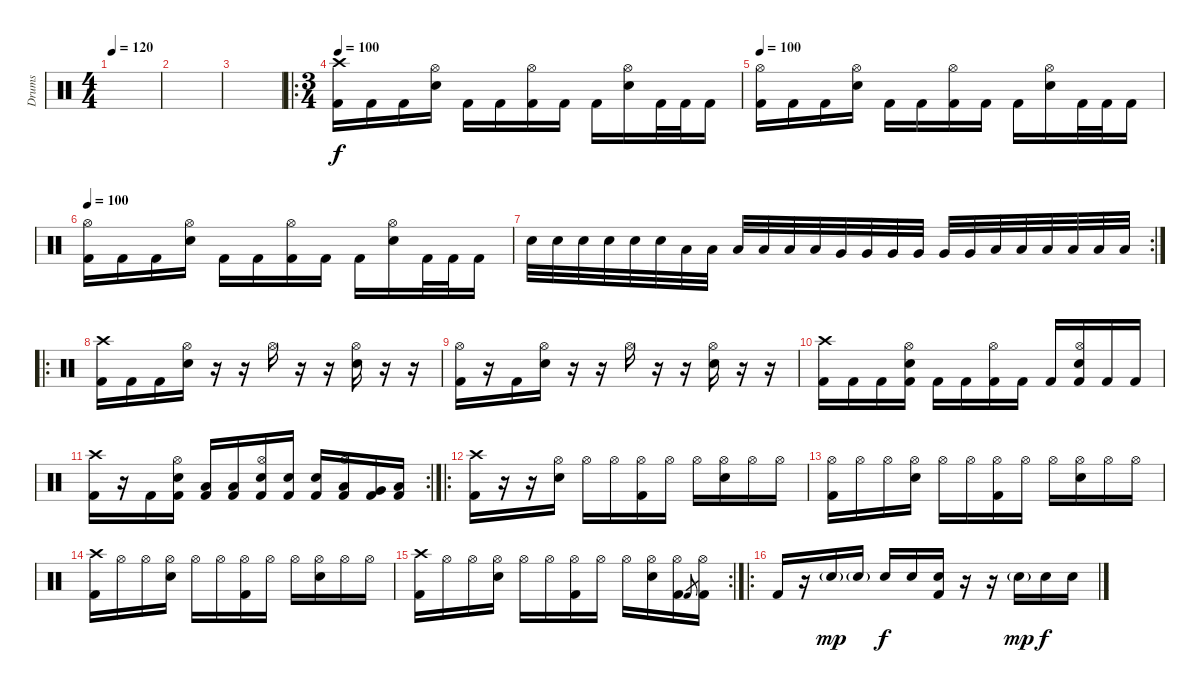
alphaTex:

\track ("Drums" "Drums") {instrument percussion}
\staff {score}
\articulation defaults
\ts (4 4)
\tempo 120
\clef neutral
\ks c
|
|
|
\ro
\ts (3 4)
\tempo 100
("Crash high (hit)" "Kick (hit) 2").16 "Kick (hit) 2".16 "Kick (hit) 2".16 ("Hi-Hat (open)" "Electric Snare (hit)").16 "Kick (hit) 2".16 "Kick (hit) 2".16 ("Hi-Hat (open)" "Kick (hit) 2").16 "Kick (hit) 2".16 "Kick (hit) 2".16 ("Hi-Hat (open)" "Electric Snare (hit)").16 "Kick (hit) 2".32 "Kick (hit) 2".32 "Kick (hit) 2".16 |
\tempo 100
("Hi-Hat (open)" "Kick (hit) 2").16 "Kick (hit) 2".16 "Kick (hit) 2".16 ("Hi-Hat (open)" "Electric Snare (hit)").16 "Kick (hit) 2".16 "Kick (hit) 2".16 ("Hi-Hat (open)" "Kick (hit) 2").16 "Kick (hit) 2".16 "Kick (hit) 2".16 ("Hi-Hat (open)" "Electric Snare (hit)").16 "Kick (hit) 2".32 "Kick (hit) 2".32 "Kick (hit) 2".16 |
\tempo 100
("Hi-Hat (open)" "Kick (hit) 2").16 "Kick (hit) 2".16 "Kick (hit) 2".16 ("Hi-Hat (open)" "Electric Snare (hit)").16 "Kick (hit) 2".16 "Kick (hit) 2".16 ("Hi-Hat (open)" "Kick (hit) 2").16 "Kick (hit) 2".16 "Kick (hit) 2".16 ("Hi-Hat (open)" "Electric Snare (hit)").16 "Kick (hit) 2".32 "Kick (hit) 2".32 "Kick (hit) 2".16 |
\rc 2 "Electric Snare (hit)".32 "Electric Snare (hit)".32 "Electric Snare (hit)".32 "Electric Snare (hit)".32 "Electric Snare (hit)".32 "Electric Snare (hit)".32 "Low Tom (hit)".32 "Low Tom (hit)".32 "Low Tom (hit)".32 "Low Tom (hit)".32 "Low Tom (hit)".32 "Low Tom (hit)".32 "Very Low Tom (hit)".32 "Very Low Tom (hit)".32 "Very Low Tom (hit)".32 "Very Low Tom (hit)".32 "Very Low Tom (hit)".32 "Very Low Tom (hit)".32 "Low Floor Tom (hit)".32 "Low Floor Tom (hit)".32 "Low Floor Tom (hit)".32 "Low Floor Tom (hit)".32 "Low Floor Tom (hit)".32 "Low Floor Tom (hit)".32
|
\ro
("Crash high (hit)" "Kick (hit) 2").16 "Kick (hit) 2".16 "Kick (hit) 2".16 ("Hi-Hat (open)" "Electric Snare (hit)").16 r.16 r.16 "Hi-Hat (open)".16 r.16 r.16 ("Hi-Hat (open)" "Electric Snare (hit)").16 r.16 r.16 |
("Hi-Hat (open)" "Kick (hit) 2").16 r.16 "Kick (hit) 2".16 ("Hi-Hat (open)" "Electric Snare (hit)").16 r.16 r.16 "Hi-Hat (open)".16 r.16 r.16 ("Hi-Hat (open)" "Electric Snare (hit)").16 r.16 r.16 |
("Crash high (hit)" "Kick (hit) 2").16 "Kick (hit) 2".16 "Kick (hit) 2".16 ("Hi-Hat (open)" "Electric Snare (hit)" "Kick (hit) 2").16 "Kick (hit) 2".16 "Kick (hit) 2".16 ("Hi-Hat (open)" "Kick (hit) 2").16 "Kick (hit) 2".16 "Kick (hit) 2".16 ("Hi-Hat (open)" "Electric Snare (hit)" "Kick (hit) 2").16 "Kick (hit) 2".16 "Kick (hit) 2".16 |
\rc 2
("Crash high (hit)" "Kick (hit) 2").16 r.16 "Kick (hit) 2".16 ("Hi-Hat (open)" "Electric Snare (hit)" "Kick (hit) 2").16 ("Low Floor Tom (hit)" "Kick (hit) 2").16 ("Low Floor Tom (hit)" "Kick (hit) 2").16 ("Hi-Hat (open)" "Electric Snare (hit)" "Kick (hit) 2").16 ("Electric Snare (hit)" "Kick (hit) 2").16 ("Electric Snare (hit)" "Kick (hit) 2").16 ("Hi-Hat (open)" "Low Tom (hit)" "Kick (hit) 2").16 ("Very Low Tom (hit)" "Kick (hit) 2").16 ("Low Floor Tom (hit)" "Kick (hit) 2").16 |
\ro
("Crash high (hit)" "Kick (hit) 2").16 r.16 r.16 ("Hi-Hat (open)" "Electric Snare (hit)").16 "Hi-Hat (open)".16 "Hi-Hat (open)".16 ("Hi-Hat (open)" "Kick (hit) 2").16 "Hi-Hat (open)".16 "Hi-Hat (open)".16 ("Hi-Hat (open)" "Electric Snare (hit)").16 "Hi-Hat (open)".16 "Hi-Hat (open)".16 |
("Hi-Hat (open)" "Kick (hit) 2").16 "Hi-Hat (open)".16 "Hi-Hat (open)".16 ("Hi-Hat (open)" "Electric Snare (hit)").16 "Hi-Hat (open)".16 "Hi-Hat (open)".16 ("Hi-Hat (open)" "Kick (hit) 2").16 "Hi-Hat (open)".16 "Hi-Hat (open)".16 ("Hi-Hat (open)" "Electric Snare (hit)").16 "Hi-Hat (open)".16 "Hi-Hat (open)".16 |
("Crash high (hit)" "Kick (hit) 2").16 "Hi-Hat (open)".16 "Hi-Hat (open)".16 ("Hi-Hat (open)" "Electric Snare (hit)").16 "Hi-Hat (open)".16 "Hi-Hat (open)".16 ("Hi-Hat (open)" "Kick (hit) 2").16 "Hi-Hat (open)".16 "Hi-Hat (open)".16 ("Hi-Hat (open)" "Electric Snare (hit)").16 "Hi-Hat (open)".16 "Hi-Hat (open)".16 |
\rc 2
("Crash high (hit)" "Kick (hit) 2").16 "Hi-Hat (open)".16 "Hi-Hat (open)".16 ("Hi-Hat (open)" "Electric Snare (hit)").16 "Hi-Hat (open)".16 "Hi-Hat (open)".16 ("Hi-Hat (open)" "Kick (hit) 2").16 "Hi-Hat (open)".16 "Hi-Hat (open)".16 ("Hi-Hat (open)" "Electric Snare (hit)").16 ("Hi-Hat (open)" "Kick (hit) 2").16 "Kick (hit) 2".8{gr} ("Hi-Hat (open)" "Kick (hit) 2").16 |
\ro "Kick (hit) 2".16
r.16 "Electric Snare (hit)"{g}.16{dy mp} "Electric Snare (hit)"{g}.16 "Electric Snare (hit)".16{dy f} "Electric Snare (hit)".16 ("Electric Snare (hit)" "Kick (hit) 2").16 r.16 r.16 "Electric Snare (hit)"{g}.16{dy mp} "Electric Snare (hit)".16{dy f} "Electric Snare (hit)".16
